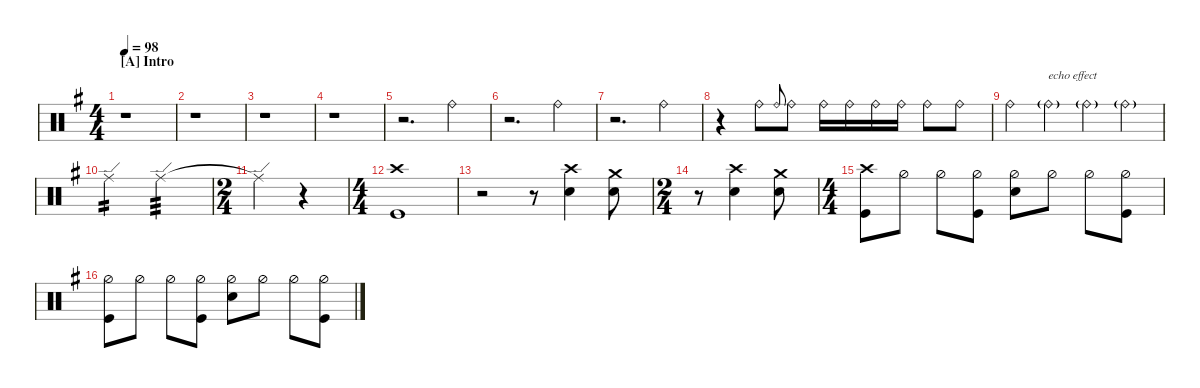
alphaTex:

\defaultSystemsLayout 4
\hideDynamics
\bracketExtendMode nobrackets
\track ("Drums" " ") {instrument percussion}
\staff
\articulation defaults
\ts (4 4)
\beaming (8 2 2 2 2)
\section ("A" "Intro")
\tempo 98
\clef neutral
\ks eminor
r.1{dy mf} |
r.1 |
r.1 |
r.1 |
r.2{d} "Ride (bell)"{acc forcenatural}.4 |
r.2{d} "Ride (bell)"{acc forcenatural}.4 |
r.2{d} "Ride (bell)"{acc forcenatural}.4 |
r.4 "Ride (bell)"{acc forcenatural}.8 "Ride (bell)"{acc forcenatural}.8{gr onbeat} "Ride (bell)"{acc forcenatural}.8 "Ride (bell)"{acc forcenatural}.16 "Ride (bell)"{acc forcenatural}.16 "Ride (bell)"{acc forcenatural}.16 "Ride (bell)"{acc forcenatural}.16 "Ride (bell)"{acc forcenatural}.8 "Ride (bell)"{acc forcenatural}.8 |
"Ride (bell)"{acc forcenatural}.4{dy ff} "Ride (bell)"{g acc forcenatural}.4{txt "echo effect" dy mf} "Ride (bell)"{g acc forcenatural}.4{dy mp} "Ride (bell)"{g acc forcenatural}.4{dy p} |
"Ride (edge)"{acc forcenatural}.2{tp 2 dy pp} "Ride (edge)"{acc forcenatural}.2{tp 3 dy mp} |
\ts (2 4)
\beaming (8 2 2)
"Ride (edge)"{t acc forcenatural}.4{dy f} r.4 |
\ts (4 4)
\beaming (8 2 2 2 2)
("Kick (hit)"{acc forcenatural} "Crash high (hit)"{acc forcenatural}).1 |
r.2 r.8 ("Snare (hit) 2"{acc forcenatural} "Crash high (hit)"{acc forcenatural}).4 ("Snare (hit) 2"{acc forcenatural} "Crash medium (hit)"{acc forcenatural}).8 |
\ts (2 4)
\beaming (8 2 2)
r.8 ("Crash high (hit)"{acc forcenatural} "Snare (hit) 2"{acc forcenatural}).4 ("Crash medium (hit)"{acc forcenatural} "Snare (hit) 2"{acc forcenatural}).8 |
\ts (4 4)
\beaming (8 2 2 2 2)
("Kick (hit)"{acc forcenatural} "Crash high (hit)"{acc forcenatural}).8 "Hi-Hat (half)"{acc forcenatural}.8 "Hi-Hat (half)"{acc forcenatural}.8 ("Hi-Hat (half)"{acc forcenatural} "Kick (hit)"{acc forcenatural}).8 ("Hi-Hat (half)"{acc forcenatural} "Snare (hit) 2"{acc forcenatural}).8 "Hi-Hat (half)"{acc forcenatural}.8 "Hi-Hat (half)"{acc forcenatural}.8 ("Hi-Hat (half)"{acc forcenatural} "Kick (hit)"{acc forcenatural}).8 |
("Hi-Hat (half)"{acc forcenatural} "Kick (hit)"{acc forcenatural}).8 "Hi-Hat (half)"{acc forcenatural}.8 "Hi-Hat (half)"{acc forcenatural}.8 ("Hi-Hat (half)"{acc forcenatural} "Kick (hit)"{acc forcenatural}).8 ("Hi-Hat (half)"{acc forcenatural} "Snare (hit) 2"{acc forcenatural}).8 "Hi-Hat (half)"{acc forcenatural}.8 "Hi-Hat (half)"{acc forcenatural}.8 ("Hi-Hat (half)"{acc forcenatural} "Kick (hit)"{acc forcenatural}).8
